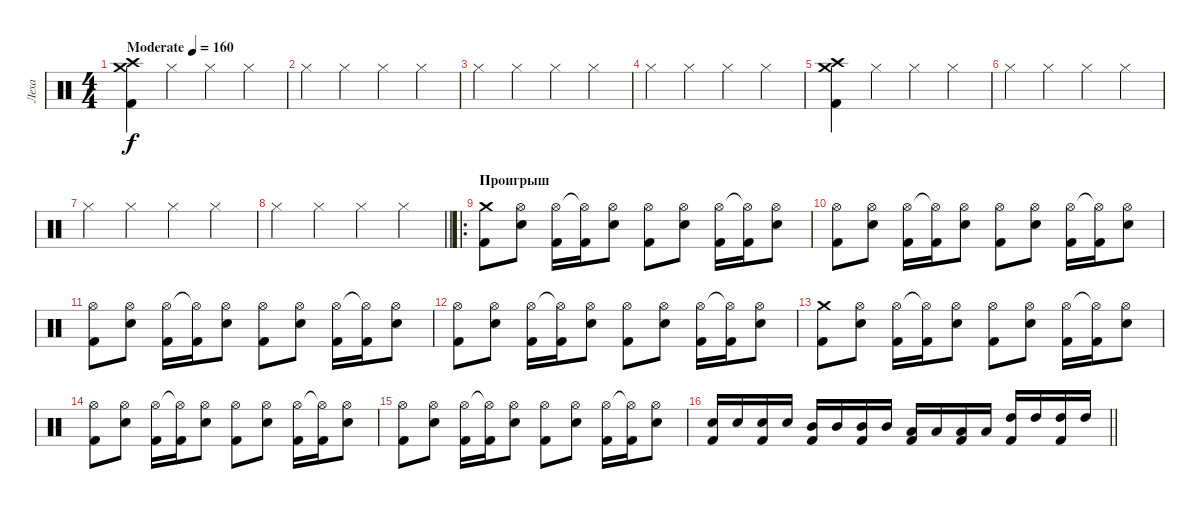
\track ("Леха" "Леха") {instrument percussion}
\staff {score}
\articulation defaults
\ts (4 4)
\tempo (160 "Moderate")
\clef neutral
\ks c
("Crash medium (hit)" "Crash high (hit)" "Kick (hit) 2").4{dy f} "Hi-Hat (closed)".4 "Hi-Hat (closed)".4 "Hi-Hat (closed)".4 |
"Hi-Hat (closed)".4 "Hi-Hat (closed)".4 "Hi-Hat (closed)".4 "Hi-Hat (closed)".4 |
"Hi-Hat (closed)".4 "Hi-Hat (closed)".4 "Hi-Hat (closed)".4 "Hi-Hat (closed)".4 |
"Hi-Hat (closed)".4 "Hi-Hat (closed)".4 "Hi-Hat (closed)".4 "Hi-Hat (closed)".4 |
("Crash medium (hit)" "Crash high (hit)" "Kick (hit) 2").4 "Hi-Hat (closed)".4 "Hi-Hat (closed)".4 "Hi-Hat (closed)".4 |
"Hi-Hat (closed)".4 "Hi-Hat (closed)".4 "Hi-Hat (closed)".4 "Hi-Hat (closed)".4 |
"Hi-Hat (closed)".4 "Hi-Hat (closed)".4 "Hi-Hat (closed)".4 "Hi-Hat (closed)".4 |
\barLineRight lightlight "Hi-Hat (closed)".4 "Hi-Hat (closed)".4 "Hi-Hat (closed)".4 "Hi-Hat (closed)".4
|
\ro
\section ("" "Проигрыш")
("Crash medium (hit)" "Kick (hit) 2").8 ("Hi-Hat (open)" "Snare (hit) 2").8 ("Hi-Hat (open)" "Kick (hit) 2").16 ("Hi-Hat (open)"{t} "Kick (hit) 2").16 ("Hi-Hat (open)" "Snare (hit) 2").8 ("Hi-Hat (open)" "Kick (hit) 2").8 ("Hi-Hat (open)" "Snare (hit) 2").8 ("Hi-Hat (open)" "Kick (hit) 2").16 ("Hi-Hat (open)"{t} "Kick (hit) 2").16 ("Hi-Hat (open)" "Snare (hit) 2").8 |
("Hi-Hat (open)" "Kick (hit) 2").8 ("Hi-Hat (open)" "Snare (hit) 2").8 ("Hi-Hat (open)" "Kick (hit) 2").16 ("Hi-Hat (open)"{t} "Kick (hit) 2").16 ("Hi-Hat (open)" "Snare (hit) 2").8 ("Hi-Hat (open)" "Kick (hit) 2").8 ("Hi-Hat (open)" "Snare (hit) 2").8 ("Hi-Hat (open)" "Kick (hit) 2").16 ("Hi-Hat (open)"{t} "Kick (hit) 2").16 ("Hi-Hat (open)" "Snare (hit) 2").8 |
("Hi-Hat (open)" "Kick (hit) 2").8 ("Hi-Hat (open)" "Snare (hit) 2").8 ("Hi-Hat (open)" "Kick (hit) 2").16 ("Hi-Hat (open)"{t} "Kick (hit) 2").16 ("Hi-Hat (open)" "Snare (hit) 2").8 ("Hi-Hat (open)" "Kick (hit) 2").8 ("Hi-Hat (open)" "Snare (hit) 2").8 ("Hi-Hat (open)" "Kick (hit) 2").16 ("Hi-Hat (open)"{t} "Kick (hit) 2").16 ("Hi-Hat (open)" "Snare (hit) 2").8 |
("Hi-Hat (open)" "Kick (hit) 2").8 ("Hi-Hat (open)" "Snare (hit) 2").8 ("Hi-Hat (open)" "Kick (hit) 2").16 ("Hi-Hat (open)"{t} "Kick (hit) 2").16 ("Hi-Hat (open)" "Snare (hit) 2").8 ("Hi-Hat (open)" "Kick (hit) 2").8 ("Hi-Hat (open)" "Snare (hit) 2").8 ("Hi-Hat (open)" "Kick (hit) 2").16 ("Hi-Hat (open)"{t} "Kick (hit) 2").16 ("Hi-Hat (open)" "Snare (hit) 2").8 |
("Crash medium (hit)" "Kick (hit) 2").8 ("Hi-Hat (open)" "Snare (hit) 2").8 ("Hi-Hat (open)" "Kick (hit) 2").16 ("Hi-Hat (open)"{t} "Kick (hit) 2").16 ("Hi-Hat (open)" "Snare (hit) 2").8 ("Hi-Hat (open)" "Kick (hit) 2").8 ("Hi-Hat (open)" "Snare (hit) 2").8 ("Hi-Hat (open)" "Kick (hit) 2").16 ("Hi-Hat (open)"{t} "Kick (hit) 2").16 ("Hi-Hat (open)" "Snare (hit) 2").8 |
("Hi-Hat (open)" "Kick (hit) 2").8 ("Hi-Hat (open)" "Snare (hit) 2").8 ("Hi-Hat (open)" "Kick (hit) 2").16 ("Hi-Hat (open)"{t} "Kick (hit) 2").16 ("Hi-Hat (open)" "Snare (hit) 2").8 ("Hi-Hat (open)" "Kick (hit) 2").8 ("Hi-Hat (open)" "Snare (hit) 2").8 ("Hi-Hat (open)" "Kick (hit) 2").16 ("Hi-Hat (open)"{t} "Kick (hit) 2").16 ("Hi-Hat (open)" "Snare (hit) 2").8 |
("Hi-Hat (open)" "Kick (hit) 2").8 ("Hi-Hat (open)" "Snare (hit) 2").8 ("Hi-Hat (open)" "Kick (hit) 2").16 ("Hi-Hat (open)"{t} "Kick (hit) 2").16 ("Hi-Hat (open)" "Snare (hit) 2").8 ("Hi-Hat (open)" "Kick (hit) 2").8 ("Hi-Hat (open)" "Snare (hit) 2").8 ("Hi-Hat (open)" "Kick (hit) 2").16 ("Hi-Hat (open)"{t} "Kick (hit) 2").16 ("Hi-Hat (open)" "Snare (hit) 2").8 |
\barLineRight lightlight
("Snare (hit) 2" "Kick (hit) 2").16 "Snare (hit) 2".16 ("Snare (hit) 2" "Kick (hit) 2").16 "Snare (hit) 2".16 ("Mid Tom (hit)" "Kick (hit) 2").16 "Mid Tom (hit)".16 ("Mid Tom (hit)" "Kick (hit) 2").16 "Mid Tom (hit)".16 ("Low Tom (hit)" "Kick (hit) 2").16 "Low Tom (hit)".16 ("Low Tom (hit)" "Kick (hit) 2").16 "Low Tom (hit)".16 ("High Tom (hit)" "Kick (hit) 2").16 "High Tom (hit)".16 ("High Tom (hit)" "Kick (hit) 2").16 "High Tom (hit)".16
